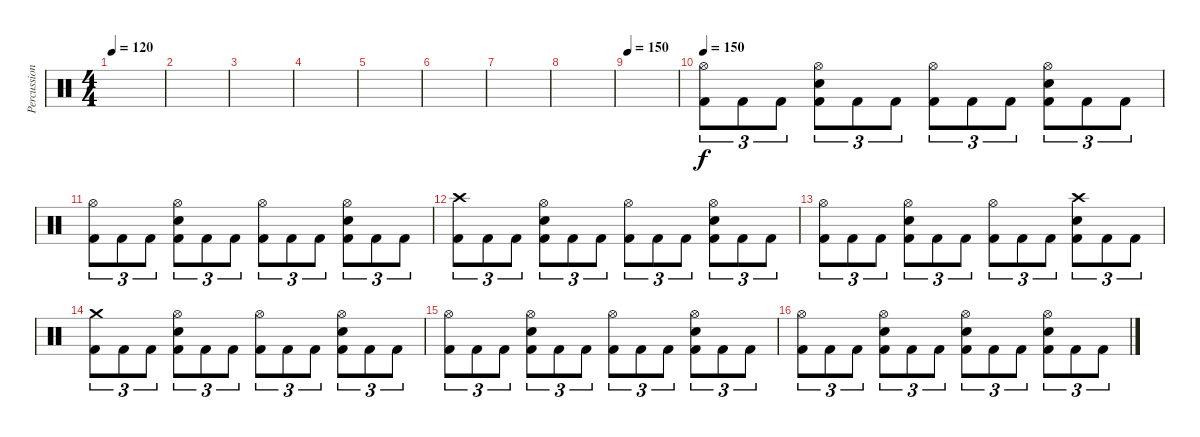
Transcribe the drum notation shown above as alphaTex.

\track ("Percussion" "Percussion") {instrument percussion}
\staff {score}
\articulation defaults
\ts (4 4)
\tempo 120
\clef neutral
\ks c
|
|
|
|
|
|
|
|
\tempo 150
|
\tempo 150
("Hi-Hat (open)" "Kick (hit) 2").8{tu (3 2)} "Kick (hit) 2".8{tu (3 2)} "Kick (hit) 2".8{tu (3 2)} ("Hi-Hat (open)" "Electric Snare (hit)" "Kick (hit) 2").8{tu (3 2)} "Kick (hit) 2".8{tu (3 2)} "Kick (hit) 2".8{tu (3 2)} ("Hi-Hat (open)" "Kick (hit) 2").8{tu (3 2)} "Kick (hit) 2".8{tu (3 2)} "Kick (hit) 2".8{tu (3 2)} ("Hi-Hat (open)" "Electric Snare (hit)" "Kick (hit) 2").8{tu (3 2)} "Kick (hit) 2".8{tu (3 2)} "Kick (hit) 2".8{tu (3 2)} |
("Hi-Hat (open)" "Kick (hit) 2").8{tu (3 2)} "Kick (hit) 2".8{tu (3 2)} "Kick (hit) 2".8{tu (3 2)} ("Hi-Hat (open)" "Electric Snare (hit)" "Kick (hit) 2").8{tu (3 2)} "Kick (hit) 2".8{tu (3 2)} "Kick (hit) 2".8{tu (3 2)} ("Hi-Hat (open)" "Kick (hit) 2").8{tu (3 2)} "Kick (hit) 2".8{tu (3 2)} "Kick (hit) 2".8{tu (3 2)} ("Hi-Hat (open)" "Electric Snare (hit)" "Kick (hit) 2").8{tu (3 2)} "Kick (hit) 2".8{tu (3 2)} "Kick (hit) 2".8{tu (3 2)} |
("Crash high (hit)" "Kick (hit) 2").8{tu (3 2)} "Kick (hit) 2".8{tu (3 2)} "Kick (hit) 2".8{tu (3 2)} ("Hi-Hat (open)" "Electric Snare (hit)" "Kick (hit) 2").8{tu (3 2)} "Kick (hit) 2".8{tu (3 2)} "Kick (hit) 2".8{tu (3 2)} ("Hi-Hat (open)" "Kick (hit) 2").8{tu (3 2)} "Kick (hit) 2".8{tu (3 2)} "Kick (hit) 2".8{tu (3 2)} ("Hi-Hat (open)" "Electric Snare (hit)" "Kick (hit) 2").8{tu (3 2)} "Kick (hit) 2".8{tu (3 2)} "Kick (hit) 2".8{tu (3 2)} |
("Hi-Hat (open)" "Kick (hit) 2").8{tu (3 2)} "Kick (hit) 2".8{tu (3 2)} "Kick (hit) 2".8{tu (3 2)} ("Hi-Hat (open)" "Electric Snare (hit)" "Kick (hit) 2").8{tu (3 2)} "Kick (hit) 2".8{tu (3 2)} "Kick (hit) 2".8{tu (3 2)} ("Hi-Hat (open)" "Kick (hit) 2").8{tu (3 2)} "Kick (hit) 2".8{tu (3 2)} "Kick (hit) 2".8{tu (3 2)} ("Crash high (hit)" "Electric Snare (hit)" "Kick (hit) 2").8{tu (3 2)} "Kick (hit) 2".8{tu (3 2)} "Kick (hit) 2".8{tu (3 2)} |
("Crash medium (hit)" "Kick (hit) 2").8{tu (3 2)} "Kick (hit) 2".8{tu (3 2)} "Kick (hit) 2".8{tu (3 2)} ("Hi-Hat (open)" "Electric Snare (hit)" "Kick (hit) 2").8{tu (3 2)} "Kick (hit) 2".8{tu (3 2)} "Kick (hit) 2".8{tu (3 2)} ("Hi-Hat (open)" "Kick (hit) 2").8{tu (3 2)} "Kick (hit) 2".8{tu (3 2)} "Kick (hit) 2".8{tu (3 2)} ("Hi-Hat (open)" "Electric Snare (hit)" "Kick (hit) 2").8{tu (3 2)} "Kick (hit) 2".8{tu (3 2)} "Kick (hit) 2".8{tu (3 2)} |
("Hi-Hat (open)" "Kick (hit) 2").8{tu (3 2)} "Kick (hit) 2".8{tu (3 2)} "Kick (hit) 2".8{tu (3 2)} ("Hi-Hat (open)" "Electric Snare (hit)" "Kick (hit) 2").8{tu (3 2)} "Kick (hit) 2".8{tu (3 2)} "Kick (hit) 2".8{tu (3 2)} ("Hi-Hat (open)" "Kick (hit) 2").8{tu (3 2)} "Kick (hit) 2".8{tu (3 2)} "Kick (hit) 2".8{tu (3 2)} ("Hi-Hat (open)" "Electric Snare (hit)" "Kick (hit) 2").8{tu (3 2)} "Kick (hit) 2".8{tu (3 2)} "Kick (hit) 2".8{tu (3 2)} |
("Hi-Hat (open)" "Kick (hit) 2").8{tu (3 2)} "Kick (hit) 2".8{tu (3 2)} "Kick (hit) 2".8{tu (3 2)} ("Hi-Hat (open)" "Electric Snare (hit)" "Kick (hit) 2").8{tu (3 2)} "Kick (hit) 2".8{tu (3 2)} "Kick (hit) 2".8{tu (3 2)} ("Hi-Hat (open)" "Electric Snare (hit)" "Kick (hit) 2").8{tu (3 2)} "Kick (hit) 2".8{tu (3 2)} "Kick (hit) 2".8{tu (3 2)} ("Hi-Hat (open)" "Electric Snare (hit)" "Kick (hit) 2").8{tu (3 2)} "Kick (hit) 2".8{tu (3 2)} "Kick (hit) 2".8{tu (3 2)}
